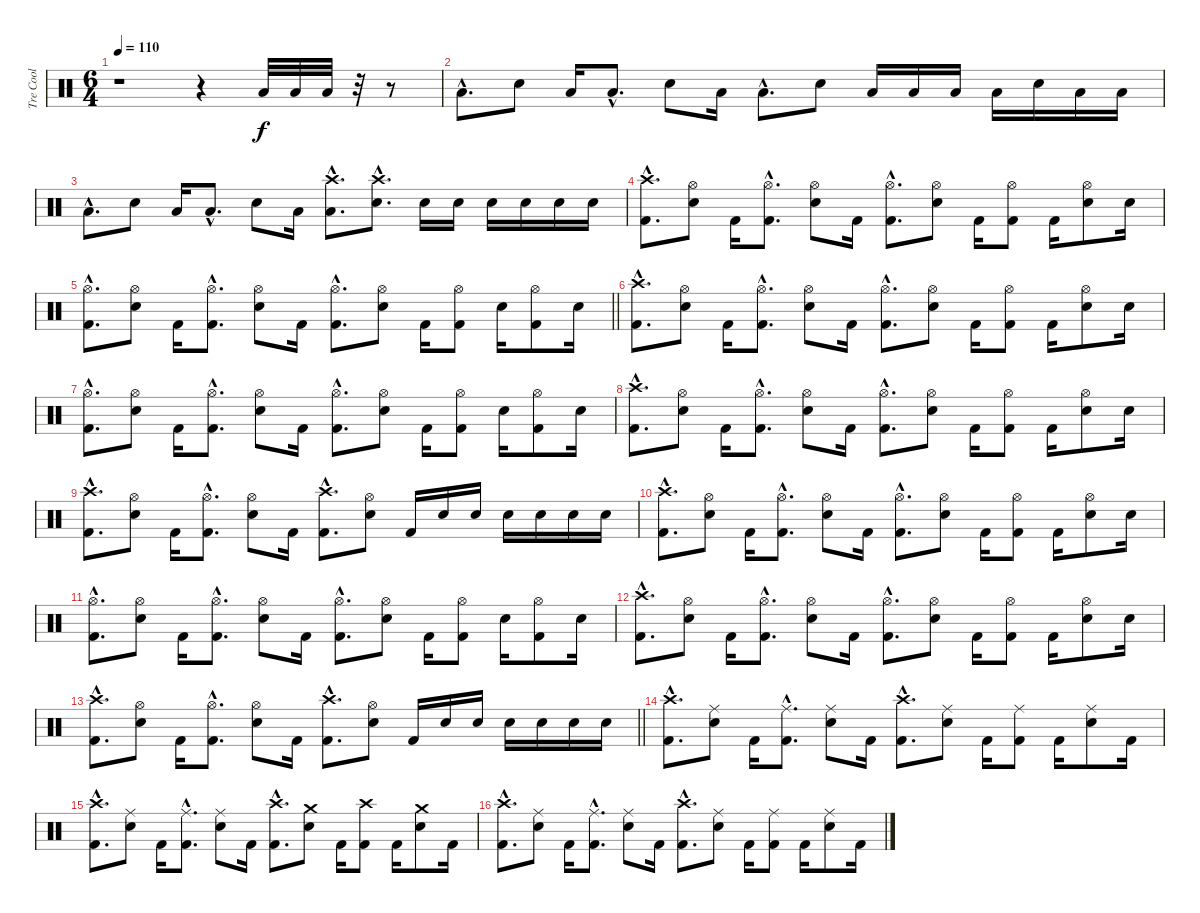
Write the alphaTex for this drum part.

\track ("Tre Cool" "Tre Cool") {instrument percussion}
\staff {score}
\articulation defaults
\ts (6 4)
\tempo 110
\clef neutral
\ks c
r.1{dy f} r.4 "Low Floor Tom (hit)".32 "Low Floor Tom (hit)".32 "Low Floor Tom (hit)".32 r.32 r.8 |
"Low Floor Tom (hit)"{hac}.8{d} "Electric Snare (hit)".8 "Low Floor Tom (hit)".16 "Low Floor Tom (hit)"{hac}.8{d} "Electric Snare (hit)".8 "Low Floor Tom (hit)".16 "Low Floor Tom (hit)"{hac}.8{d} "Electric Snare (hit)".8 "Low Floor Tom (hit)".16 "Low Floor Tom (hit)".16 "Low Floor Tom (hit)".16 "Low Floor Tom (hit)".16 "Electric Snare (hit)".16 "Low Floor Tom (hit)".16 "Low Floor Tom (hit)".16 |
"Low Floor Tom (hit)"{hac}.8{d} "Electric Snare (hit)".8 "Low Floor Tom (hit)".16 "Low Floor Tom (hit)"{hac}.8{d} "Electric Snare (hit)".8 "Low Floor Tom (hit)".16 ("Crash high (hit)"{hac} "Low Floor Tom (hit)"{hac}).8{d} ("Crash high (hit)"{hac} "Electric Snare (hit)"{hac}).8{d} "Electric Snare (hit)".16 "Electric Snare (hit)".16 "Electric Snare (hit)".16 "Electric Snare (hit)".16 "Electric Snare (hit)".16 "Electric Snare (hit)".16 |
("Crash high (hit)"{hac} "Kick (hit) 2"{hac}).8{d} ("Hi-Hat (open)" "Electric Snare (hit)").8 "Kick (hit) 2".16 ("Hi-Hat (open)"{hac} "Kick (hit) 2"{hac}).8{d} ("Hi-Hat (open)" "Electric Snare (hit)").8 "Kick (hit) 2".16 ("Hi-Hat (open)"{hac} "Kick (hit) 2"{hac}).8{d} ("Hi-Hat (open)" "Electric Snare (hit)").8 "Kick (hit) 2".16 ("Hi-Hat (open)" "Kick (hit) 2").8 "Kick (hit) 2".16 ("Hi-Hat (open)" "Electric Snare (hit)").8 "Electric Snare (hit)".16 |
\barLineRight lightlight
("Hi-Hat (open)"{hac} "Kick (hit) 2"{hac}).8{d} ("Hi-Hat (open)" "Electric Snare (hit)").8 "Kick (hit) 2".16 ("Hi-Hat (open)"{hac} "Kick (hit) 2"{hac}).8{d} ("Hi-Hat (open)" "Electric Snare (hit)").8 "Kick (hit) 2".16 ("Hi-Hat (open)"{hac} "Kick (hit) 2"{hac}).8{d} ("Hi-Hat (open)" "Electric Snare (hit)").8 "Kick (hit) 2".16 ("Hi-Hat (open)" "Kick (hit) 2").8 "Electric Snare (hit)".16 ("Hi-Hat (open)" "Kick (hit) 2").8 "Electric Snare (hit)".16 |
("Crash high (hit)"{hac} "Kick (hit) 2"{hac}).8{d} ("Hi-Hat (open)" "Electric Snare (hit)").8 "Kick (hit) 2".16 ("Hi-Hat (open)"{hac} "Kick (hit) 2"{hac}).8{d} ("Hi-Hat (open)" "Electric Snare (hit)").8 "Kick (hit) 2".16 ("Hi-Hat (open)"{hac} "Kick (hit) 2"{hac}).8{d} ("Hi-Hat (open)" "Electric Snare (hit)").8 "Kick (hit) 2".16 ("Hi-Hat (open)" "Kick (hit) 2").8 "Kick (hit) 2".16 ("Hi-Hat (open)" "Electric Snare (hit)").8 "Electric Snare (hit)".16 |
("Hi-Hat (open)"{hac} "Kick (hit) 2"{hac}).8{d} ("Hi-Hat (open)" "Electric Snare (hit)").8 "Kick (hit) 2".16 ("Hi-Hat (open)"{hac} "Kick (hit) 2"{hac}).8{d} ("Hi-Hat (open)" "Electric Snare (hit)").8 "Kick (hit) 2".16 ("Hi-Hat (open)"{hac} "Kick (hit) 2"{hac}).8{d} ("Hi-Hat (open)" "Electric Snare (hit)").8 "Kick (hit) 2".16 ("Hi-Hat (open)" "Kick (hit) 2").8 "Electric Snare (hit)".16 ("Hi-Hat (open)" "Kick (hit) 2").8 "Electric Snare (hit)".16 |
("Crash high (hit)"{hac} "Kick (hit) 2"{hac}).8{d} ("Hi-Hat (open)" "Electric Snare (hit)").8 "Kick (hit) 2".16 ("Hi-Hat (open)"{hac} "Kick (hit) 2"{hac}).8{d} ("Hi-Hat (open)" "Electric Snare (hit)").8 "Kick (hit) 2".16 ("Hi-Hat (open)"{hac} "Kick (hit) 2"{hac}).8{d} ("Hi-Hat (open)" "Electric Snare (hit)").8 "Kick (hit) 2".16 ("Hi-Hat (open)" "Kick (hit) 2").8 "Kick (hit) 2".16 ("Hi-Hat (open)" "Electric Snare (hit)").8 "Electric Snare (hit)".16 |
("Crash high (hit)"{hac} "Kick (hit) 2"{hac}).8{d} ("Hi-Hat (open)" "Electric Snare (hit)").8 "Kick (hit) 2".16 ("Hi-Hat (open)"{hac} "Kick (hit) 2"{hac}).8{d} ("Hi-Hat (open)" "Electric Snare (hit)").8 "Kick (hit) 2".16 ("Crash high (hit)"{hac} "Kick (hit) 2"{hac}).8{d} ("Hi-Hat (open)" "Electric Snare (hit)").8 "Kick (hit) 2".16 "Electric Snare (hit)".16 "Electric Snare (hit)".16 "Electric Snare (hit)".16 "Electric Snare (hit)".16 "Electric Snare (hit)".16 "Electric Snare (hit)".16 |
("Crash high (hit)"{hac} "Kick (hit) 2"{hac}).8{d} ("Hi-Hat (open)" "Electric Snare (hit)").8 "Kick (hit) 2".16 ("Hi-Hat (open)"{hac} "Kick (hit) 2"{hac}).8{d} ("Hi-Hat (open)" "Electric Snare (hit)").8 "Kick (hit) 2".16 ("Hi-Hat (open)"{hac} "Kick (hit) 2"{hac}).8{d} ("Hi-Hat (open)" "Electric Snare (hit)").8 "Kick (hit) 2".16 ("Hi-Hat (open)" "Kick (hit) 2").8 "Kick (hit) 2".16 ("Hi-Hat (open)" "Electric Snare (hit)").8 "Electric Snare (hit)".16 |
("Hi-Hat (open)"{hac} "Kick (hit) 2"{hac}).8{d} ("Hi-Hat (open)" "Electric Snare (hit)").8 "Kick (hit) 2".16 ("Hi-Hat (open)"{hac} "Kick (hit) 2"{hac}).8{d} ("Hi-Hat (open)" "Electric Snare (hit)").8 "Kick (hit) 2".16 ("Hi-Hat (open)"{hac} "Kick (hit) 2"{hac}).8{d} ("Hi-Hat (open)" "Electric Snare (hit)").8 "Kick (hit) 2".16 ("Hi-Hat (open)" "Kick (hit) 2").8 "Electric Snare (hit)".16 ("Hi-Hat (open)" "Kick (hit) 2").8 "Electric Snare (hit)".16 |
("Crash high (hit)"{hac} "Kick (hit) 2"{hac}).8{d} ("Hi-Hat (open)" "Electric Snare (hit)").8 "Kick (hit) 2".16 ("Hi-Hat (open)"{hac} "Kick (hit) 2"{hac}).8{d} ("Hi-Hat (open)" "Electric Snare (hit)").8 "Kick (hit) 2".16 ("Hi-Hat (open)"{hac} "Kick (hit) 2"{hac}).8{d} ("Hi-Hat (open)" "Electric Snare (hit)").8 "Kick (hit) 2".16 ("Hi-Hat (open)" "Kick (hit) 2").8 "Kick (hit) 2".16 ("Hi-Hat (open)" "Electric Snare (hit)").8 "Electric Snare (hit)".16 |
\barLineRight lightlight
("Crash high (hit)"{hac} "Kick (hit) 2"{hac}).8{d} ("Hi-Hat (open)" "Electric Snare (hit)").8 "Kick (hit) 2".16 ("Hi-Hat (open)"{hac} "Kick (hit) 2"{hac}).8{d} ("Hi-Hat (open)" "Electric Snare (hit)").8 "Kick (hit) 2".16 ("Crash high (hit)"{hac} "Kick (hit) 2"{hac}).8{d} ("Hi-Hat (open)" "Electric Snare (hit)").8 "Kick (hit) 2".16 "Electric Snare (hit)".16 "Electric Snare (hit)".16 "Electric Snare (hit)".16 "Electric Snare (hit)".16 "Electric Snare (hit)".16 "Electric Snare (hit)".16 |
("Crash high (hit)"{hac} "Kick (hit) 2"{hac}).8{d} ("Ride (middle)" "Electric Snare (hit)").8 "Kick (hit) 2".16 ("Ride (middle)"{hac} "Kick (hit) 2"{hac}).8{d} ("Ride (middle)" "Electric Snare (hit)").8 "Kick (hit) 2".16 ("Crash high (hit)"{hac} "Kick (hit) 2"{hac}).8{d} ("Ride (middle)" "Electric Snare (hit)").8 "Kick (hit) 2".16 ("Ride (middle)" "Kick (hit) 2").8 "Kick (hit) 2".16 ("Ride (middle)" "Electric Snare (hit)").8 "Kick (hit) 2".16 |
("Crash high (hit)"{hac} "Kick (hit) 2"{hac}).8{d} ("Ride (middle)" "Electric Snare (hit)").8 "Kick (hit) 2".16 ("Ride (middle)"{hac} "Kick (hit) 2"{hac}).8{d} ("Ride (middle)" "Electric Snare (hit)").8 "Kick (hit) 2".16 ("Crash high (hit)"{hac} "Kick (hit) 2"{hac}).8{d} ("Crash medium (hit)" "Electric Snare (hit)").8 "Kick (hit) 2".16 ("Crash high (hit)" "Kick (hit) 2").8 "Kick (hit) 2".16 ("Crash medium (hit)" "Electric Snare (hit)").8 "Kick (hit) 2".16 |
("Crash high (hit)"{hac} "Kick (hit) 2"{hac}).8{d} ("Ride (middle)" "Electric Snare (hit)").8 "Kick (hit) 2".16 ("Ride (middle)"{hac} "Kick (hit) 2"{hac}).8{d} ("Ride (middle)" "Electric Snare (hit)").8 "Kick (hit) 2".16 ("Crash high (hit)"{hac} "Kick (hit) 2"{hac}).8{d} ("Ride (middle)" "Electric Snare (hit)").8 "Kick (hit) 2".16 ("Ride (middle)" "Kick (hit) 2").8 "Kick (hit) 2".16 ("Ride (middle)" "Electric Snare (hit)").8 "Kick (hit) 2".16
